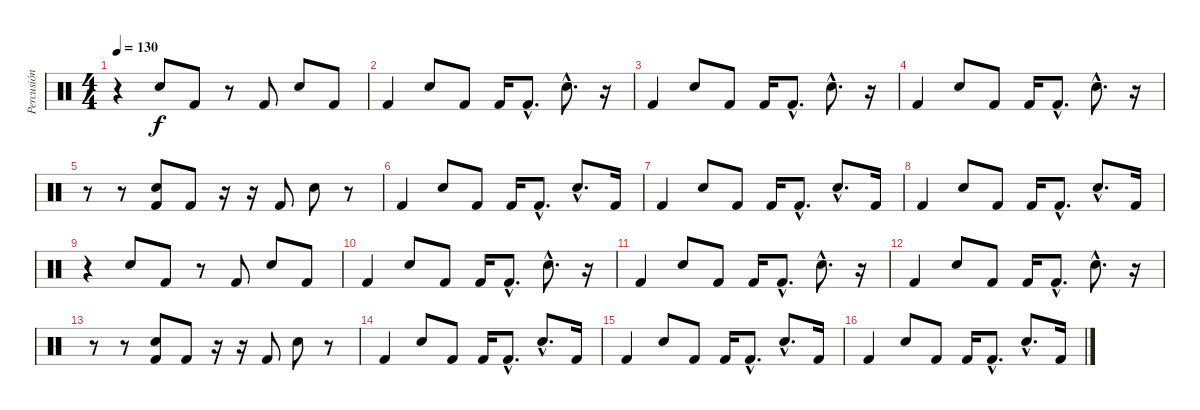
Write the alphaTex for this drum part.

\track ("Percusión" "Percusión") {instrument percussion}
\staff {score}
\articulation defaults
\ts (4 4)
\tempo 130
\clef neutral
\ks c
r.4{dy f} "Electric Snare (hit)".8 "Kick (hit) 2".8 r.8 "Kick (hit) 2".8 "Electric Snare (hit)".8 "Kick (hit) 2".8 |
"Kick (hit) 2".4 "Electric Snare (hit)".8 "Kick (hit) 2".8 "Kick (hit) 2".16 "Kick (hit) 2"{hac}.8{d} "Electric Snare (hit)"{hac}.8{d} r.16 |
"Kick (hit) 2".4 "Electric Snare (hit)".8 "Kick (hit) 2".8 "Kick (hit) 2".16 "Kick (hit) 2"{hac}.8{d} "Electric Snare (hit)"{hac}.8{d} r.16 |
"Kick (hit) 2".4 "Electric Snare (hit)".8 "Kick (hit) 2".8 "Kick (hit) 2".16 "Kick (hit) 2"{hac}.8{d} "Electric Snare (hit)"{hac}.8{d} r.16 |
r.8 r.8 ("Electric Snare (hit)" "Kick (hit) 2").8 "Kick (hit) 2".8 r.16 r.16 "Kick (hit) 2".8 "Electric Snare (hit)".8 r.8 |
"Kick (hit) 2".4 "Electric Snare (hit)".8 "Kick (hit) 2".8 "Kick (hit) 2".16 "Kick (hit) 2"{hac}.8{d} "Electric Snare (hit)"{hac}.8{d} "Kick (hit) 2".16 |
"Kick (hit) 2".4 "Electric Snare (hit)".8 "Kick (hit) 2".8 "Kick (hit) 2".16 "Kick (hit) 2"{hac}.8{d} "Electric Snare (hit)"{hac}.8{d} "Kick (hit) 2".16 |
"Kick (hit) 2".4 "Electric Snare (hit)".8 "Kick (hit) 2".8 "Kick (hit) 2".16 "Kick (hit) 2"{hac}.8{d} "Electric Snare (hit)"{hac}.8{d} "Kick (hit) 2".16 |
r.4 "Electric Snare (hit)".8 "Kick (hit) 2".8 r.8 "Kick (hit) 2".8 "Electric Snare (hit)".8 "Kick (hit) 2".8 |
"Kick (hit) 2".4 "Electric Snare (hit)".8 "Kick (hit) 2".8 "Kick (hit) 2".16 "Kick (hit) 2"{hac}.8{d} "Electric Snare (hit)"{hac}.8{d} r.16 |
"Kick (hit) 2".4 "Electric Snare (hit)".8 "Kick (hit) 2".8 "Kick (hit) 2".16 "Kick (hit) 2"{hac}.8{d} "Electric Snare (hit)"{hac}.8{d} r.16 |
"Kick (hit) 2".4 "Electric Snare (hit)".8 "Kick (hit) 2".8 "Kick (hit) 2".16 "Kick (hit) 2"{hac}.8{d} "Electric Snare (hit)"{hac}.8{d} r.16 |
r.8 r.8 ("Electric Snare (hit)" "Kick (hit) 2").8 "Kick (hit) 2".8 r.16 r.16 "Kick (hit) 2".8 "Electric Snare (hit)".8 r.8 |
"Kick (hit) 2".4 "Electric Snare (hit)".8 "Kick (hit) 2".8 "Kick (hit) 2".16 "Kick (hit) 2"{hac}.8{d} "Electric Snare (hit)"{hac}.8{d} "Kick (hit) 2".16 |
"Kick (hit) 2".4 "Electric Snare (hit)".8 "Kick (hit) 2".8 "Kick (hit) 2".16 "Kick (hit) 2"{hac}.8{d} "Electric Snare (hit)"{hac}.8{d} "Kick (hit) 2".16 |
"Kick (hit) 2".4 "Electric Snare (hit)".8 "Kick (hit) 2".8 "Kick (hit) 2".16 "Kick (hit) 2"{hac}.8{d} "Electric Snare (hit)"{hac}.8{d} "Kick (hit) 2".16
